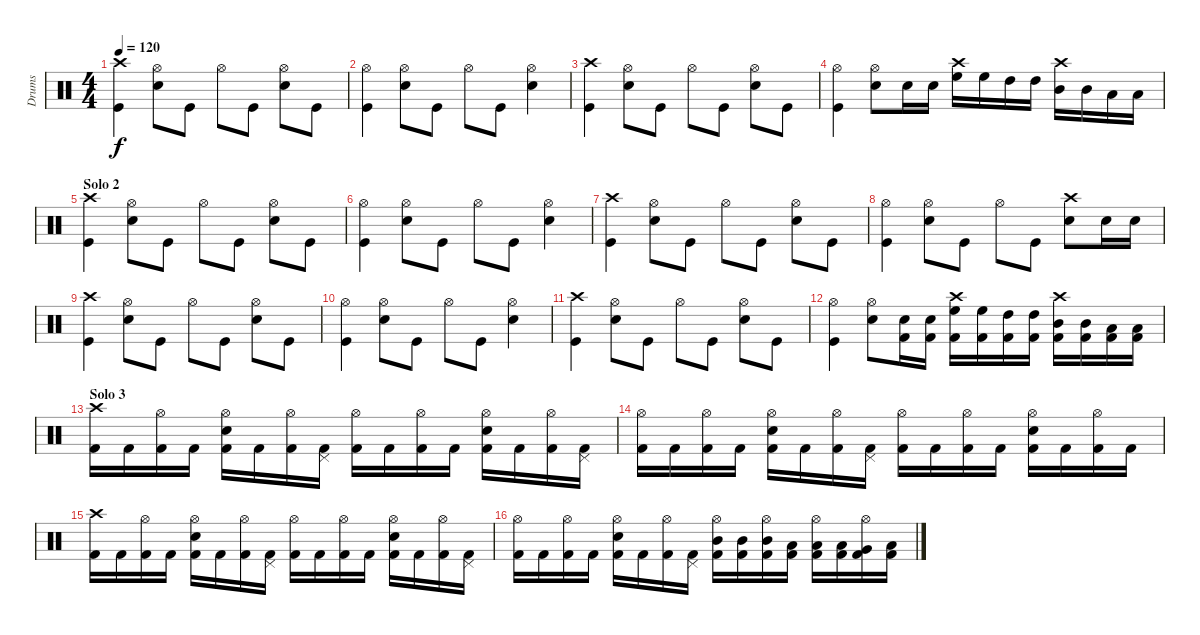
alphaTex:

\track ("Drums" "Drums") {instrument percussion}
\staff {score}
\articulation defaults
\ts (4 4)
\tempo 120
\clef neutral
\ks c
("Crash high (hit)" "Kick (hit)").4{dy f} ("Hi-Hat (open)" "Snare (hit) 2").8 "Kick (hit)".8 "Hi-Hat (open)".8 "Kick (hit)".8 ("Hi-Hat (open)" "Snare (hit) 2").8 "Kick (hit)".8 |
("Hi-Hat (open)" "Kick (hit)").4 ("Hi-Hat (open)" "Snare (hit) 2").8 "Kick (hit)".8 "Hi-Hat (open)".8 "Kick (hit)".8 ("Hi-Hat (open)" "Snare (hit) 2").4 |
("Crash high (hit)" "Kick (hit)").4 ("Hi-Hat (open)" "Snare (hit) 2").8 "Kick (hit)".8 "Hi-Hat (open)".8 "Kick (hit)".8 ("Hi-Hat (open)" "Snare (hit) 2").8 "Kick (hit)".8 |
("Hi-Hat (open)" "Kick (hit)").4 ("Hi-Hat (open)" "Snare (hit) 2").8 "Snare (hit) 2".16 "Snare (hit) 2".16 ("Crash high (hit)" "High Floor Tom (hit)").16 "High Floor Tom (hit)".16 "High Tom (hit)".16 "High Tom (hit)".16 ("Crash high (hit)" "Mid Tom (hit)").16 "Mid Tom (hit)".16 "Low Tom (hit)".16 "Low Tom (hit)".16 |
\section ("" "Solo 2")
("Crash high (hit)" "Kick (hit)").4 ("Hi-Hat (open)" "Snare (hit) 2").8 "Kick (hit)".8 "Hi-Hat (open)".8 "Kick (hit)".8 ("Hi-Hat (open)" "Snare (hit) 2").8 "Kick (hit)".8 |
("Hi-Hat (open)" "Kick (hit)").4 ("Hi-Hat (open)" "Snare (hit) 2").8 "Kick (hit)".8 "Hi-Hat (open)".8 "Kick (hit)".8 ("Hi-Hat (open)" "Snare (hit) 2").4 |
("Crash high (hit)" "Kick (hit)").4 ("Hi-Hat (open)" "Snare (hit) 2").8 "Kick (hit)".8 "Hi-Hat (open)".8 "Kick (hit)".8 ("Hi-Hat (open)" "Snare (hit) 2").8 "Kick (hit)".8 |
("Hi-Hat (open)" "Kick (hit)").4 ("Hi-Hat (open)" "Snare (hit) 2").8 "Kick (hit)".8 "Hi-Hat (open)".8 "Kick (hit)".8 ("Crash high (hit)" "Snare (hit) 2").8 "Snare (hit) 2".16 "Snare (hit) 2".16 |
("Crash high (hit)" "Kick (hit)").4 ("Hi-Hat (open)" "Snare (hit) 2").8 "Kick (hit)".8 "Hi-Hat (open)".8 "Kick (hit)".8 ("Hi-Hat (open)" "Snare (hit) 2").8 "Kick (hit)".8 |
("Hi-Hat (open)" "Kick (hit)").4 ("Hi-Hat (open)" "Snare (hit) 2").8 "Kick (hit)".8 "Hi-Hat (open)".8 "Kick (hit)".8 ("Hi-Hat (open)" "Snare (hit) 2").4 |
("Crash high (hit)" "Kick (hit)").4 ("Hi-Hat (open)" "Snare (hit) 2").8 "Kick (hit)".8 "Hi-Hat (open)".8 "Kick (hit)".8 ("Hi-Hat (open)" "Snare (hit) 2").8 "Kick (hit)".8 |
("Hi-Hat (open)" "Kick (hit)").4 ("Hi-Hat (open)" "Snare (hit) 2").8 ("Snare (hit) 2" "Kick (hit) 2").16 ("Snare (hit) 2" "Kick (hit) 2").16 ("Crash high (hit)" "High Floor Tom (hit)" "Kick (hit) 2").16 ("High Floor Tom (hit)" "Kick (hit) 2").16 ("High Tom (hit)" "Kick (hit) 2").16 ("High Tom (hit)" "Kick (hit) 2").16 ("Crash high (hit)" "Mid Tom (hit)" "Kick (hit) 2").16 ("Mid Tom (hit)" "Kick (hit) 2").16 ("Low Tom (hit)" "Kick (hit) 2").16 ("Low Tom (hit)" "Kick (hit) 2").16 |
\section ("" "Solo 3")
("Crash high (hit)" "Kick (hit) 2").16 "Kick (hit) 2".16 ("Hi-Hat (open)" "Kick (hit) 2").16 "Kick (hit) 2".16 ("Hi-Hat (open)" "Snare (hit) 2" "Kick (hit) 2").16 "Kick (hit) 2".16 ("Hi-Hat (open)" "Kick (hit) 2").16 ("Pedal Hi-Hat (hit)" "Kick (hit) 2").16 ("Hi-Hat (open)" "Kick (hit) 2").16 "Kick (hit) 2".16 ("Hi-Hat (open)" "Kick (hit) 2").16 "Kick (hit) 2".16 ("Hi-Hat (open)" "Snare (hit) 2" "Kick (hit) 2").16 "Kick (hit) 2".16 ("Hi-Hat (open)" "Kick (hit) 2").16 ("Pedal Hi-Hat (hit)" "Kick (hit) 2").16 |
("Hi-Hat (open)" "Kick (hit) 2").16 "Kick (hit) 2".16 ("Hi-Hat (open)" "Kick (hit) 2").16 "Kick (hit) 2".16 ("Hi-Hat (open)" "Snare (hit) 2" "Kick (hit) 2").16 "Kick (hit) 2".16 ("Hi-Hat (open)" "Kick (hit) 2").16 ("Pedal Hi-Hat (hit)" "Kick (hit) 2").16 ("Hi-Hat (open)" "Kick (hit) 2").16 "Kick (hit) 2".16 ("Hi-Hat (open)" "Kick (hit) 2").16 "Kick (hit) 2".16 ("Hi-Hat (open)" "Snare (hit) 2" "Kick (hit) 2").16 "Kick (hit) 2".16 ("Hi-Hat (open)" "Kick (hit) 2").16 "Kick (hit) 2".16 |
("Crash high (hit)" "Kick (hit) 2").16 "Kick (hit) 2".16 ("Hi-Hat (open)" "Kick (hit) 2").16 "Kick (hit) 2".16 ("Hi-Hat (open)" "Snare (hit) 2" "Kick (hit) 2").16 "Kick (hit) 2".16 ("Hi-Hat (open)" "Kick (hit) 2").16 ("Pedal Hi-Hat (hit)" "Kick (hit) 2").16 ("Hi-Hat (open)" "Kick (hit) 2").16 "Kick (hit) 2".16 ("Hi-Hat (open)" "Kick (hit) 2").16 "Kick (hit) 2".16 ("Hi-Hat (open)" "Snare (hit) 2" "Kick (hit) 2").16 "Kick (hit) 2".16 ("Hi-Hat (open)" "Kick (hit) 2").16 ("Pedal Hi-Hat (hit)" "Kick (hit) 2").16 |
("Hi-Hat (open)" "Kick (hit) 2").16 "Kick (hit) 2".16 ("Hi-Hat (open)" "Kick (hit) 2").16 "Kick (hit) 2".16 ("Hi-Hat (open)" "Snare (hit) 2" "Kick (hit) 2").16 "Kick (hit) 2".16 ("Hi-Hat (open)" "Kick (hit) 2").16 ("Pedal Hi-Hat (hit)" "Kick (hit) 2").16 ("Hi-Hat (open)" "Mid Tom (hit)" "Kick (hit) 2").16 ("Mid Tom (hit)" "Kick (hit) 2").16 ("Hi-Hat (open)" "Mid Tom (hit)" "Kick (hit) 2").16 ("Low Tom (hit)" "Kick (hit) 2").16 ("Hi-Hat (open)" "Low Tom (hit)" "Kick (hit) 2").16 ("Low Tom (hit)" "Kick (hit) 2").16 ("Hi-Hat (open)" "Very Low Tom (hit)" "Kick (hit) 2").16 ("Low Floor Tom (hit)" "Kick (hit) 2").16
